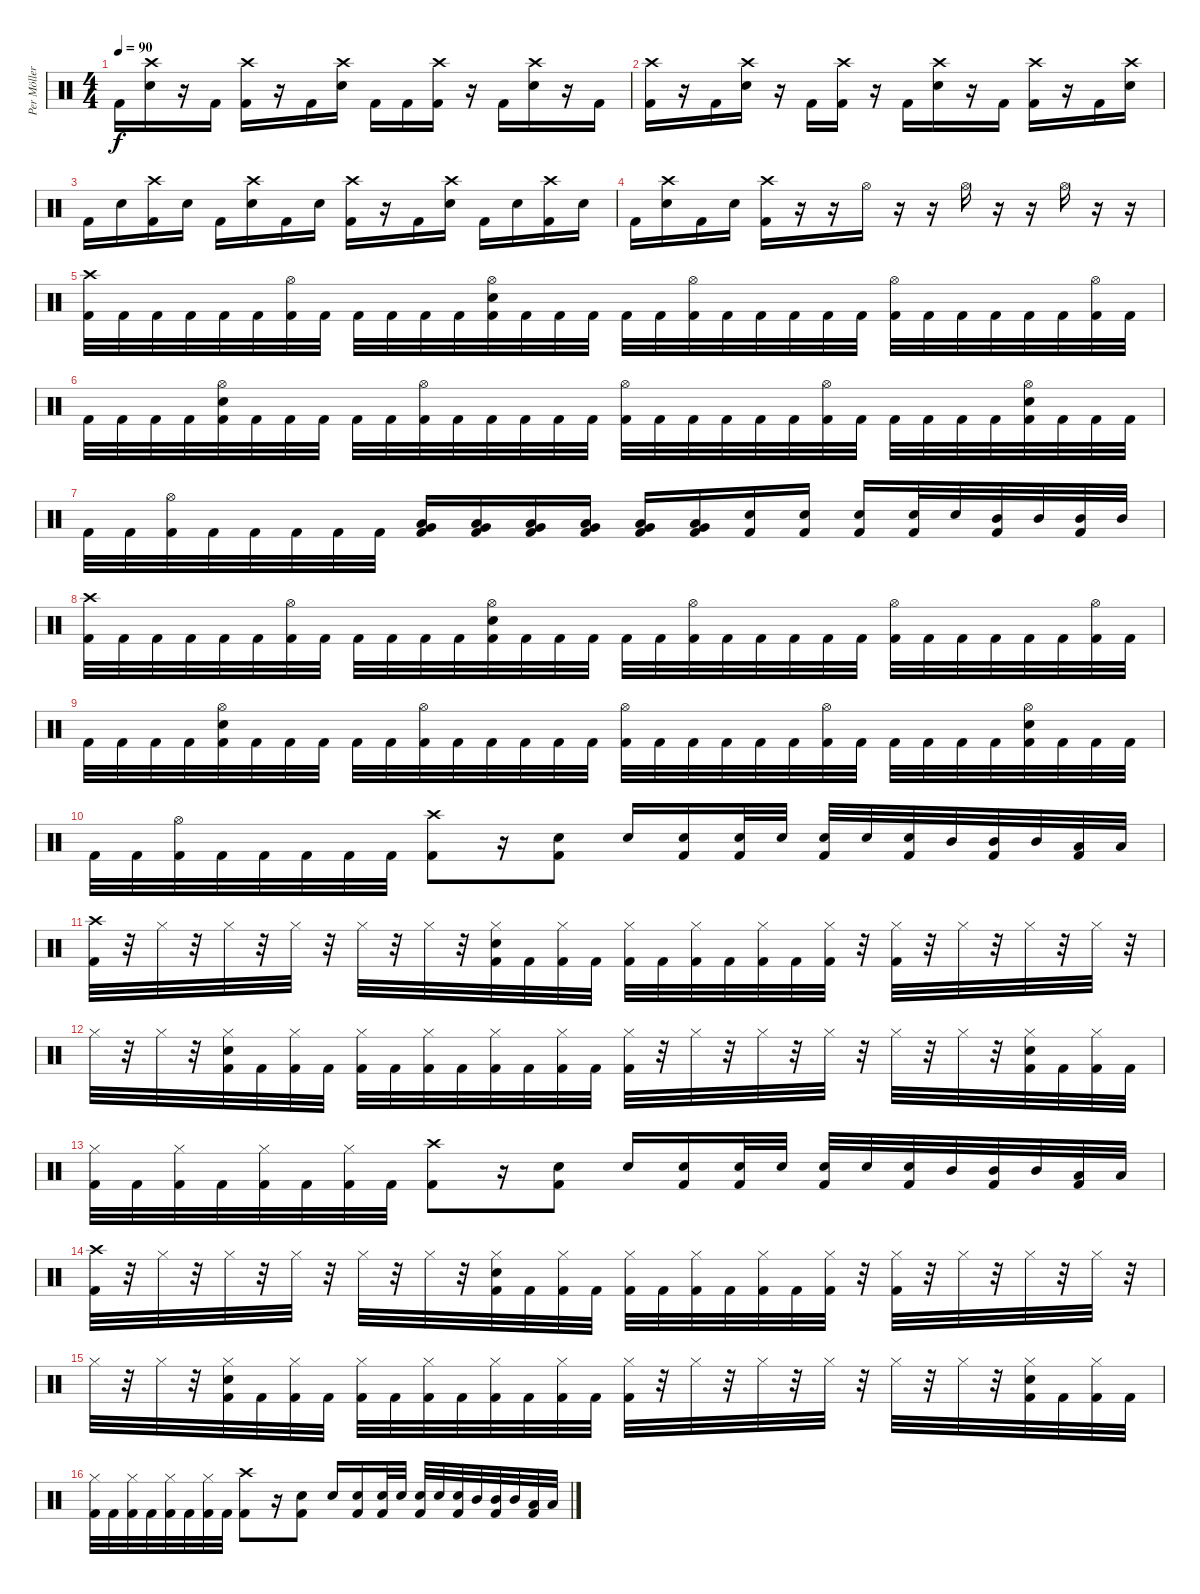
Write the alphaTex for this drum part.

\track ("Per Möller-Jensen" "Per Möller") {instrument percussion}
\staff {score}
\articulation defaults
\ts (4 4)
\tempo 90
\clef neutral
\ks c "Kick (hit) 2".16{dy f}
("Crash high (hit)" "Snare (hit) 2").16 r.16 "Kick (hit) 2".16 ("Crash high (hit)" "Kick (hit) 2").16 r.16 "Kick (hit) 2".16 ("Crash high (hit)" "Snare (hit) 2").16 "Kick (hit) 2".16 "Kick (hit) 2".16 ("Crash high (hit)" "Kick (hit) 2").16 r.16 "Kick (hit) 2".16 ("Crash high (hit)" "Snare (hit) 2").16 r.16 "Kick (hit) 2".16 |
("Crash high (hit)" "Kick (hit) 2").16 r.16 "Kick (hit) 2".16 ("Crash high (hit)" "Snare (hit) 2").16 r.16 "Kick (hit) 2".16 ("Crash high (hit)" "Kick (hit) 2").16 r.16 "Kick (hit) 2".16 ("Crash high (hit)" "Snare (hit) 2").16 r.16 "Kick (hit) 2".16 ("Crash high (hit)" "Kick (hit) 2").16 r.16 "Kick (hit) 2".16 ("Crash high (hit)" "Snare (hit) 2").16 |
"Kick (hit) 2".16 "Snare (hit) 2".16 ("Crash high (hit)" "Kick (hit) 2").16 "Snare (hit) 2".16 "Kick (hit) 2".16 ("Crash high (hit)" "Snare (hit) 2").16 "Kick (hit) 2".16 "Snare (hit) 2".16 ("Crash high (hit)" "Kick (hit) 2").16 r.16 "Kick (hit) 2".16 ("Crash high (hit)" "Snare (hit) 2").16 "Kick (hit) 2".16 "Snare (hit) 2".16 ("Crash high (hit)" "Kick (hit) 2").16 "Snare (hit) 2".16 |
"Kick (hit) 2".16 ("Crash high (hit)" "Snare (hit) 2").16 "Kick (hit) 2".16 "Snare (hit) 2".16 ("Crash high (hit)" "Kick (hit) 2").16 r.16 r.16 "Hi-Hat (open)".16 r.16 r.16 "Hi-Hat (open)".16 r.16 r.16 "Hi-Hat (open)".16 r.16 r.16 |
("Crash high (hit)" "Kick (hit) 2").32 "Kick (hit) 2".32 "Kick (hit) 2".32 "Kick (hit) 2".32 "Kick (hit) 2".32 "Kick (hit) 2".32 ("Hi-Hat (open)" "Kick (hit) 2").32 "Kick (hit) 2".32 "Kick (hit) 2".32 "Kick (hit) 2".32 "Kick (hit) 2".32 "Kick (hit) 2".32 ("Snare (hit) 2" "Hi-Hat (open)" "Kick (hit) 2").32 "Kick (hit) 2".32 "Kick (hit) 2".32 "Kick (hit) 2".32 "Kick (hit) 2".32 "Kick (hit) 2".32 ("Hi-Hat (open)" "Kick (hit) 2").32 "Kick (hit) 2".32 "Kick (hit) 2".32 "Kick (hit) 2".32 "Kick (hit) 2".32 "Kick (hit) 2".32 ("Hi-Hat (open)" "Kick (hit) 2").32 "Kick (hit) 2".32 "Kick (hit) 2".32 "Kick (hit) 2".32 "Kick (hit) 2".32 "Kick (hit) 2".32 ("Hi-Hat (open)" "Kick (hit) 2").32 "Kick (hit) 2".32 |
"Kick (hit) 2".32 "Kick (hit) 2".32 "Kick (hit) 2".32 "Kick (hit) 2".32 ("Snare (hit) 2" "Hi-Hat (open)" "Kick (hit) 2").32 "Kick (hit) 2".32 "Kick (hit) 2".32 "Kick (hit) 2".32 "Kick (hit) 2".32 "Kick (hit) 2".32 ("Hi-Hat (open)" "Kick (hit) 2").32 "Kick (hit) 2".32 "Kick (hit) 2".32 "Kick (hit) 2".32 "Kick (hit) 2".32 "Kick (hit) 2".32 ("Hi-Hat (open)" "Kick (hit) 2").32 "Kick (hit) 2".32 "Kick (hit) 2".32 "Kick (hit) 2".32 "Kick (hit) 2".32 "Kick (hit) 2".32 ("Hi-Hat (open)" "Kick (hit) 2").32 "Kick (hit) 2".32 "Kick (hit) 2".32 "Kick (hit) 2".32 "Kick (hit) 2".32 "Kick (hit) 2".32 ("Snare (hit) 2" "Hi-Hat (open)" "Kick (hit) 2").32 "Kick (hit) 2".32 "Kick (hit) 2".32 "Kick (hit) 2".32 |
"Kick (hit) 2".32 "Kick (hit) 2".32 ("Hi-Hat (open)" "Kick (hit) 2").32 "Kick (hit) 2".32 "Kick (hit) 2".32 "Kick (hit) 2".32 "Kick (hit) 2".32 "Kick (hit) 2".32 ("Very Low Tom (hit)" "Low Tom (hit)" "Kick (hit) 2").16 ("Very Low Tom (hit)" "Low Tom (hit)" "Kick (hit) 2").16 ("Very Low Tom (hit)" "Low Tom (hit)" "Kick (hit) 2").16 ("Very Low Tom (hit)" "Low Tom (hit)" "Kick (hit) 2").16 ("Very Low Tom (hit)" "Low Tom (hit)" "Kick (hit) 2").16 ("Very Low Tom (hit)" "Low Tom (hit)" "Kick (hit) 2").16 ("Snare (hit) 2" "Kick (hit) 2").16 ("Snare (hit) 2" "Kick (hit) 2").16 ("Snare (hit) 2" "Kick (hit) 2").16 ("Snare (hit) 2" "Kick (hit) 2").32 "Snare (hit) 2".32 ("Mid Tom (hit)" "Kick (hit) 2").32 "Mid Tom (hit)".32 ("Mid Tom (hit)" "Kick (hit) 2").32 "Mid Tom (hit)".32 |
("Crash high (hit)" "Kick (hit) 2").32 "Kick (hit) 2".32 "Kick (hit) 2".32 "Kick (hit) 2".32 "Kick (hit) 2".32 "Kick (hit) 2".32 ("Hi-Hat (open)" "Kick (hit) 2").32 "Kick (hit) 2".32 "Kick (hit) 2".32 "Kick (hit) 2".32 "Kick (hit) 2".32 "Kick (hit) 2".32 ("Snare (hit) 2" "Hi-Hat (open)" "Kick (hit) 2").32 "Kick (hit) 2".32 "Kick (hit) 2".32 "Kick (hit) 2".32 "Kick (hit) 2".32 "Kick (hit) 2".32 ("Hi-Hat (open)" "Kick (hit) 2").32 "Kick (hit) 2".32 "Kick (hit) 2".32 "Kick (hit) 2".32 "Kick (hit) 2".32 "Kick (hit) 2".32 ("Hi-Hat (open)" "Kick (hit) 2").32 "Kick (hit) 2".32 "Kick (hit) 2".32 "Kick (hit) 2".32 "Kick (hit) 2".32 "Kick (hit) 2".32 ("Hi-Hat (open)" "Kick (hit) 2").32 "Kick (hit) 2".32 |
"Kick (hit) 2".32 "Kick (hit) 2".32 "Kick (hit) 2".32 "Kick (hit) 2".32 ("Snare (hit) 2" "Hi-Hat (open)" "Kick (hit) 2").32 "Kick (hit) 2".32 "Kick (hit) 2".32 "Kick (hit) 2".32 "Kick (hit) 2".32 "Kick (hit) 2".32 ("Hi-Hat (open)" "Kick (hit) 2").32 "Kick (hit) 2".32 "Kick (hit) 2".32 "Kick (hit) 2".32 "Kick (hit) 2".32 "Kick (hit) 2".32 ("Hi-Hat (open)" "Kick (hit) 2").32 "Kick (hit) 2".32 "Kick (hit) 2".32 "Kick (hit) 2".32 "Kick (hit) 2".32 "Kick (hit) 2".32 ("Hi-Hat (open)" "Kick (hit) 2").32 "Kick (hit) 2".32 "Kick (hit) 2".32 "Kick (hit) 2".32 "Kick (hit) 2".32 "Kick (hit) 2".32 ("Snare (hit) 2" "Hi-Hat (open)" "Kick (hit) 2").32 "Kick (hit) 2".32 "Kick (hit) 2".32 "Kick (hit) 2".32 |
"Kick (hit) 2".32 "Kick (hit) 2".32 ("Hi-Hat (open)" "Kick (hit) 2").32 "Kick (hit) 2".32 "Kick (hit) 2".32 "Kick (hit) 2".32 "Kick (hit) 2".32 "Kick (hit) 2".32 ("Crash high (hit)" "Kick (hit) 2").8 r.16 ("Snare (hit) 2" "Kick (hit) 2").8 "Snare (hit) 2".16 ("Snare (hit) 2" "Kick (hit) 2").16 ("Snare (hit) 2" "Kick (hit) 2").32 "Snare (hit) 2".32 ("Snare (hit) 2" "Kick (hit) 2").32 "Snare (hit) 2".32 ("Snare (hit) 2" "Kick (hit) 2").32 "Mid Tom (hit)".32 ("Mid Tom (hit)" "Kick (hit) 2").32 "Mid Tom (hit)".32 ("Low Tom (hit)" "Kick (hit) 2").32 "Low Tom (hit)".32 |
("Crash high (hit)" "Kick (hit) 2").32 r.32 "Hi-Hat (closed)".32 r.32 "Hi-Hat (closed)".32 r.32 "Hi-Hat (closed)".32 r.32 "Hi-Hat (closed)".32 r.32 "Hi-Hat (closed)".32 r.32 ("Hi-Hat (closed)" "Snare (hit) 2" "Kick (hit) 2").32 "Kick (hit) 2".32 ("Hi-Hat (closed)" "Kick (hit) 2").32 "Kick (hit) 2".32 ("Hi-Hat (closed)" "Kick (hit) 2").32 "Kick (hit) 2".32 ("Hi-Hat (closed)" "Kick (hit) 2").32 "Kick (hit) 2".32 ("Hi-Hat (closed)" "Kick (hit) 2").32 "Kick (hit) 2".32 ("Hi-Hat (closed)" "Kick (hit) 2").32 r.32 ("Hi-Hat (closed)" "Kick (hit) 2").32 r.32 "Hi-Hat (closed)".32 r.32 "Hi-Hat (closed)".32 r.32 "Hi-Hat (closed)".32 r.32 |
"Hi-Hat (closed)".32 r.32 "Hi-Hat (closed)".32 r.32 ("Hi-Hat (closed)" "Snare (hit) 2" "Kick (hit) 2").32 "Kick (hit) 2".32 ("Hi-Hat (closed)" "Kick (hit) 2").32 "Kick (hit) 2".32 ("Hi-Hat (closed)" "Kick (hit) 2").32 "Kick (hit) 2".32 ("Hi-Hat (closed)" "Kick (hit) 2").32 "Kick (hit) 2".32 ("Hi-Hat (closed)" "Kick (hit) 2").32 "Kick (hit) 2".32 ("Hi-Hat (closed)" "Kick (hit) 2").32 "Kick (hit) 2".32 ("Hi-Hat (closed)" "Kick (hit) 2").32 r.32 "Hi-Hat (closed)".32 r.32 "Hi-Hat (closed)".32 r.32 "Hi-Hat (closed)".32 r.32 "Hi-Hat (closed)".32 r.32 "Hi-Hat (closed)".32 r.32 ("Hi-Hat (closed)" "Snare (hit) 2" "Kick (hit) 2").32 "Kick (hit) 2".32 ("Hi-Hat (closed)" "Kick (hit) 2").32 "Kick (hit) 2".32 |
("Hi-Hat (closed)" "Kick (hit) 2").32 "Kick (hit) 2".32 ("Hi-Hat (closed)" "Kick (hit) 2").32 "Kick (hit) 2".32 ("Hi-Hat (closed)" "Kick (hit) 2").32 "Kick (hit) 2".32 ("Hi-Hat (closed)" "Kick (hit) 2").32 "Kick (hit) 2".32 ("Crash high (hit)" "Kick (hit) 2").8 r.16 ("Snare (hit) 2" "Kick (hit) 2").8 "Snare (hit) 2".16 ("Snare (hit) 2" "Kick (hit) 2").16 ("Snare (hit) 2" "Kick (hit) 2").32 "Snare (hit) 2".32 ("Snare (hit) 2" "Kick (hit) 2").32 "Snare (hit) 2".32 ("Snare (hit) 2" "Kick (hit) 2").32 "Mid Tom (hit)".32 ("Mid Tom (hit)" "Kick (hit) 2").32 "Mid Tom (hit)".32 ("Low Tom (hit)" "Kick (hit) 2").32 "Low Tom (hit)".32 |
("Crash high (hit)" "Kick (hit) 2").32 r.32 "Hi-Hat (closed)".32 r.32 "Hi-Hat (closed)".32 r.32 "Hi-Hat (closed)".32 r.32 "Hi-Hat (closed)".32 r.32 "Hi-Hat (closed)".32 r.32 ("Hi-Hat (closed)" "Snare (hit) 2" "Kick (hit) 2").32 "Kick (hit) 2".32 ("Hi-Hat (closed)" "Kick (hit) 2").32 "Kick (hit) 2".32 ("Hi-Hat (closed)" "Kick (hit) 2").32 "Kick (hit) 2".32 ("Hi-Hat (closed)" "Kick (hit) 2").32 "Kick (hit) 2".32 ("Hi-Hat (closed)" "Kick (hit) 2").32 "Kick (hit) 2".32 ("Hi-Hat (closed)" "Kick (hit) 2").32 r.32 ("Hi-Hat (closed)" "Kick (hit) 2").32 r.32 "Hi-Hat (closed)".32 r.32 "Hi-Hat (closed)".32 r.32 "Hi-Hat (closed)".32 r.32 |
"Hi-Hat (closed)".32 r.32 "Hi-Hat (closed)".32 r.32 ("Hi-Hat (closed)" "Snare (hit) 2" "Kick (hit) 2").32 "Kick (hit) 2".32 ("Hi-Hat (closed)" "Kick (hit) 2").32 "Kick (hit) 2".32 ("Hi-Hat (closed)" "Kick (hit) 2").32 "Kick (hit) 2".32 ("Hi-Hat (closed)" "Kick (hit) 2").32 "Kick (hit) 2".32 ("Hi-Hat (closed)" "Kick (hit) 2").32 "Kick (hit) 2".32 ("Hi-Hat (closed)" "Kick (hit) 2").32 "Kick (hit) 2".32 ("Hi-Hat (closed)" "Kick (hit) 2").32 r.32 "Hi-Hat (closed)".32 r.32 "Hi-Hat (closed)".32 r.32 "Hi-Hat (closed)".32 r.32 "Hi-Hat (closed)".32 r.32 "Hi-Hat (closed)".32 r.32 ("Hi-Hat (closed)" "Snare (hit) 2" "Kick (hit) 2").32 "Kick (hit) 2".32 ("Hi-Hat (closed)" "Kick (hit) 2").32 "Kick (hit) 2".32 |
("Hi-Hat (closed)" "Kick (hit) 2").32 "Kick (hit) 2".32 ("Hi-Hat (closed)" "Kick (hit) 2").32 "Kick (hit) 2".32 ("Hi-Hat (closed)" "Kick (hit) 2").32 "Kick (hit) 2".32 ("Hi-Hat (closed)" "Kick (hit) 2").32 "Kick (hit) 2".32 ("Crash high (hit)" "Kick (hit) 2").8 r.16 ("Snare (hit) 2" "Kick (hit) 2").8 "Snare (hit) 2".16 ("Snare (hit) 2" "Kick (hit) 2").16 ("Snare (hit) 2" "Kick (hit) 2").32 "Snare (hit) 2".32 ("Snare (hit) 2" "Kick (hit) 2").32 "Snare (hit) 2".32 ("Snare (hit) 2" "Kick (hit) 2").32 "Mid Tom (hit)".32 ("Mid Tom (hit)" "Kick (hit) 2").32 "Mid Tom (hit)".32 ("Low Tom (hit)" "Kick (hit) 2").32 "Low Tom (hit)".32
